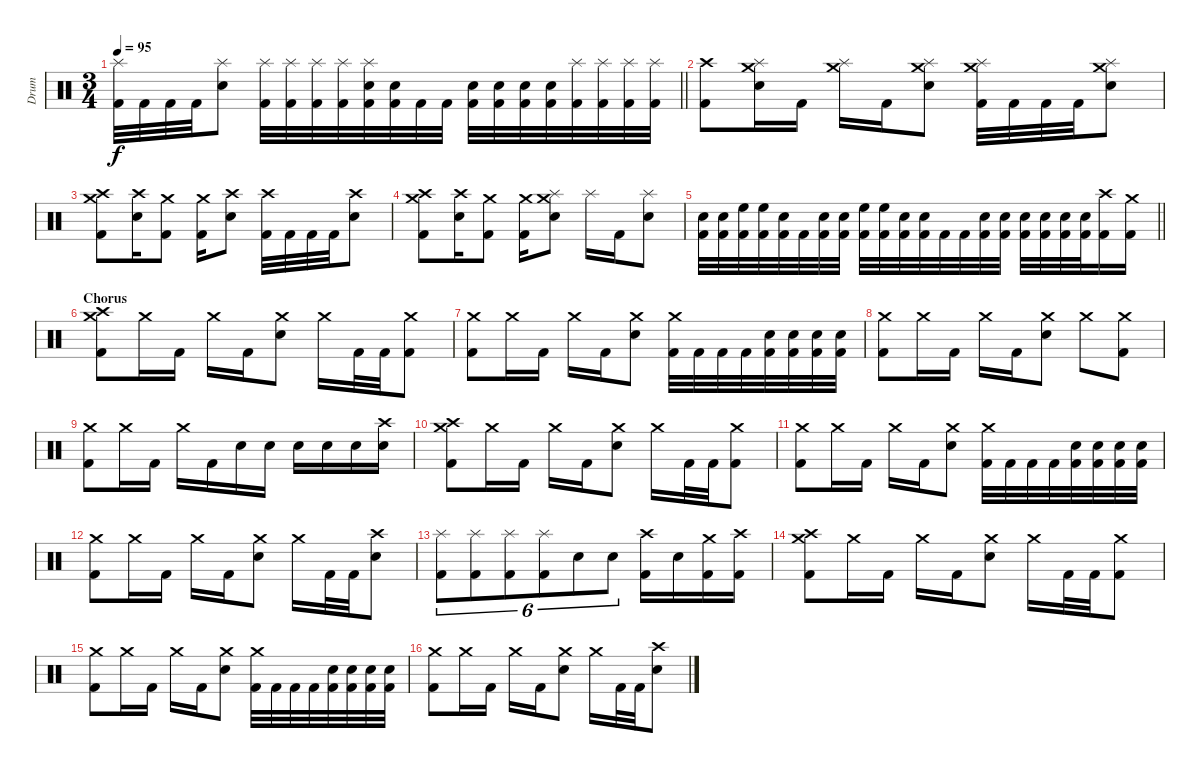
\track ("Drum" "Drum") {instrument percussion}
\staff {score}
\articulation defaults
\ts (3 4)
\tempo 95
\clef neutral
\barLineRight lightlight
\ks c
("Splash (hit)" "Kick (hit) 2").32{dy f} "Kick (hit) 2".32 "Kick (hit) 2".32 "Kick (hit) 2".32 ("Splash (hit)" "Electric Snare (hit)").8 ("Splash (hit)" "Kick (hit) 2").32 ("Splash (hit)" "Kick (hit) 2").32 ("Splash (hit)" "Kick (hit) 2").32 ("Splash (hit)" "Kick (hit) 2").32 ("Splash (hit)" "Electric Snare (hit)" "Kick (hit) 2").32 ("Electric Snare (hit)" "Kick (hit) 2").32 "Kick (hit) 2".32 "Kick (hit) 2".32 ("Electric Snare (hit)" "Kick (hit) 2").32 ("Electric Snare (hit)" "Kick (hit) 2").32 ("Electric Snare (hit)" "Kick (hit) 2").32 ("Electric Snare (hit)" "Kick (hit) 2").32 ("Splash (hit)" "Kick (hit) 2").32 ("Splash (hit)" "Kick (hit) 2").32 ("Splash (hit)" "Kick (hit) 2").32 ("Splash (hit)" "Kick (hit) 2").32 |
("Crash high (hit)" "Kick (hit) 2").8 ("Crash medium (hit)" "Splash (hit)" "Electric Snare (hit)").16 "Kick (hit) 2".16 ("Crash medium (hit)" "Splash (hit)").16 "Kick (hit) 2".16 ("Crash medium (hit)" "Splash (hit)" "Electric Snare (hit)").8 ("Crash medium (hit)" "Splash (hit)" "Kick (hit) 2").32 "Kick (hit) 2".32 "Kick (hit) 2".32 "Kick (hit) 2".32 ("Crash medium (hit)" "Splash (hit)" "Electric Snare (hit)").8 |
("Crash medium (hit)" "Crash high (hit)" "Kick (hit) 2").8 ("Crash high (hit)" "Electric Snare (hit)").16 ("Crash medium (hit)" "Kick (hit) 2").8 ("Crash medium (hit)" "Kick (hit) 2").16 ("Crash high (hit)" "Electric Snare (hit)").8 ("Crash high (hit)" "Kick (hit) 2").32 "Kick (hit) 2".32 "Kick (hit) 2".32 "Kick (hit) 2".32 ("Crash high (hit)" "Electric Snare (hit)").8 |
("Crash medium (hit)" "Crash high (hit)" "Kick (hit) 2").8 ("Crash high (hit)" "Electric Snare (hit)").16 ("Crash medium (hit)" "Kick (hit) 2").8 ("Crash medium (hit)" "Kick (hit) 2").16 ("Splash (hit)" "Crash medium (hit)" "Electric Snare (hit)").8 "Splash (hit)".16 "Kick (hit) 2".16 ("Splash (hit)" "Electric Snare (hit)").8 |
\barLineRight lightlight
("Electric Snare (hit)" "Kick (hit) 2").32 ("Electric Snare (hit)" "Kick (hit) 2").32 ("High Floor Tom (hit)" "Kick (hit) 2").32 ("High Floor Tom (hit)" "Kick (hit) 2").32 ("Electric Snare (hit)" "Kick (hit) 2").32 "Kick (hit) 2".32 ("Electric Snare (hit)" "Kick (hit) 2").32 ("Electric Snare (hit)" "Kick (hit) 2").32 ("High Floor Tom (hit)" "Kick (hit) 2").32 ("High Floor Tom (hit)" "Kick (hit) 2").32 ("Electric Snare (hit)" "Kick (hit) 2").32 ("Electric Snare (hit)" "Kick (hit) 2").32 "Kick (hit) 2".32 "Kick (hit) 2".32 ("Electric Snare (hit)" "Kick (hit) 2").32 ("Electric Snare (hit)" "Kick (hit) 2").32 ("Electric Snare (hit)" "Kick (hit) 2").32 ("Electric Snare (hit)" "Kick (hit) 2").32 ("Electric Snare (hit)" "Kick (hit) 2").32 ("Electric Snare (hit)" "Kick (hit) 2").32 ("Crash high (hit)" "Kick (hit) 2").16 ("Crash medium (hit)" "Kick (hit) 2").16 |
\section ("" "Chorus")
("Crash medium (hit)" "Crash high (hit)" "Kick (hit) 2").8 "Crash medium (hit)".16 "Kick (hit) 2".16 "Crash medium (hit)".16 "Kick (hit) 2".16 ("Crash medium (hit)" "Electric Snare (hit)").8 "Crash medium (hit)".16 "Kick (hit) 2".32 "Kick (hit) 2".32 ("Crash medium (hit)" "Kick (hit) 2").8 |
("Crash medium (hit)" "Kick (hit) 2").8 "Crash medium (hit)".16 "Kick (hit) 2".16 "Crash medium (hit)".16 "Kick (hit) 2".16 ("Crash medium (hit)" "Electric Snare (hit)").8 ("Crash medium (hit)" "Kick (hit) 2").32 "Kick (hit) 2".32 "Kick (hit) 2".32 "Kick (hit) 2".32 ("Electric Snare (hit)" "Kick (hit) 2").32 ("Electric Snare (hit)" "Kick (hit) 2").32 ("Electric Snare (hit)" "Kick (hit) 2").32 ("Electric Snare (hit)" "Kick (hit) 2").32 |
("Crash medium (hit)" "Kick (hit) 2").8 "Crash medium (hit)".16 "Kick (hit) 2".16 "Crash medium (hit)".16 "Kick (hit) 2".16 ("Crash medium (hit)" "Electric Snare (hit)").8 "Crash medium (hit)".8 ("Crash medium (hit)" "Kick (hit) 2").8 |
("Crash medium (hit)" "Kick (hit) 2").8 "Crash medium (hit)".16 "Kick (hit) 2".16 "Crash medium (hit)".16 "Kick (hit) 2".16 "Electric Snare (hit)".16 "Electric Snare (hit)".16 "Electric Snare (hit)".16 "Electric Snare (hit)".16 "Electric Snare (hit)".16 ("Crash high (hit)" "Electric Snare (hit)").16 |
("Crash medium (hit)" "Crash high (hit)" "Kick (hit) 2").8 "Crash medium (hit)".16 "Kick (hit) 2".16 "Crash medium (hit)".16 "Kick (hit) 2".16 ("Crash medium (hit)" "Electric Snare (hit)").8 "Crash medium (hit)".16 "Kick (hit) 2".32 "Kick (hit) 2".32 ("Crash medium (hit)" "Kick (hit) 2").8 |
("Crash medium (hit)" "Kick (hit) 2").8 "Crash medium (hit)".16 "Kick (hit) 2".16 "Crash medium (hit)".16 "Kick (hit) 2".16 ("Crash medium (hit)" "Electric Snare (hit)").8 ("Crash medium (hit)" "Kick (hit) 2").32 "Kick (hit) 2".32 "Kick (hit) 2".32 "Kick (hit) 2".32 ("Electric Snare (hit)" "Kick (hit) 2").32 ("Electric Snare (hit)" "Kick (hit) 2").32 ("Electric Snare (hit)" "Kick (hit) 2").32 ("Electric Snare (hit)" "Kick (hit) 2").32 |
("Crash medium (hit)" "Kick (hit) 2").8 "Crash medium (hit)".16 "Kick (hit) 2".16 "Crash medium (hit)".16 "Kick (hit) 2".16 ("Crash medium (hit)" "Electric Snare (hit)").8 "Crash medium (hit)".16 "Kick (hit) 2".32 "Kick (hit) 2".32 ("Crash high (hit)" "Electric Snare (hit)").8 |
("Splash (hit)" "Kick (hit) 2").8{tu (6 4)} ("Splash (hit)" "Kick (hit) 2").8{tu (6 4)} ("Splash (hit)" "Kick (hit) 2").8{tu (6 4)} ("Splash (hit)" "Kick (hit) 2").8{tu (6 4)} "Electric Snare (hit)".8{tu (6 4)} "Electric Snare (hit)".8{tu (6 4)} ("Crash high (hit)" "Kick (hit) 2").16 "Electric Snare (hit)".16 ("Crash medium (hit)" "Kick (hit) 2").16 ("Crash high (hit)" "Kick (hit) 2").16 |
("Crash medium (hit)" "Crash high (hit)" "Kick (hit) 2").8 "Crash medium (hit)".16 "Kick (hit) 2".16 "Crash medium (hit)".16 "Kick (hit) 2".16 ("Crash medium (hit)" "Electric Snare (hit)").8 "Crash medium (hit)".16 "Kick (hit) 2".32 "Kick (hit) 2".32 ("Crash medium (hit)" "Kick (hit) 2").8 |
("Crash medium (hit)" "Kick (hit) 2").8 "Crash medium (hit)".16 "Kick (hit) 2".16 "Crash medium (hit)".16 "Kick (hit) 2".16 ("Crash medium (hit)" "Electric Snare (hit)").8 ("Crash medium (hit)" "Kick (hit) 2").32 "Kick (hit) 2".32 "Kick (hit) 2".32 "Kick (hit) 2".32 ("Electric Snare (hit)" "Kick (hit) 2").32 ("Electric Snare (hit)" "Kick (hit) 2").32 ("Electric Snare (hit)" "Kick (hit) 2").32 ("Electric Snare (hit)" "Kick (hit) 2").32 |
("Crash medium (hit)" "Kick (hit) 2").8 "Crash medium (hit)".16 "Kick (hit) 2".16 "Crash medium (hit)".16 "Kick (hit) 2".16 ("Crash medium (hit)" "Electric Snare (hit)").8 "Crash medium (hit)".16 "Kick (hit) 2".32 "Kick (hit) 2".32 ("Crash high (hit)" "Electric Snare (hit)").8
